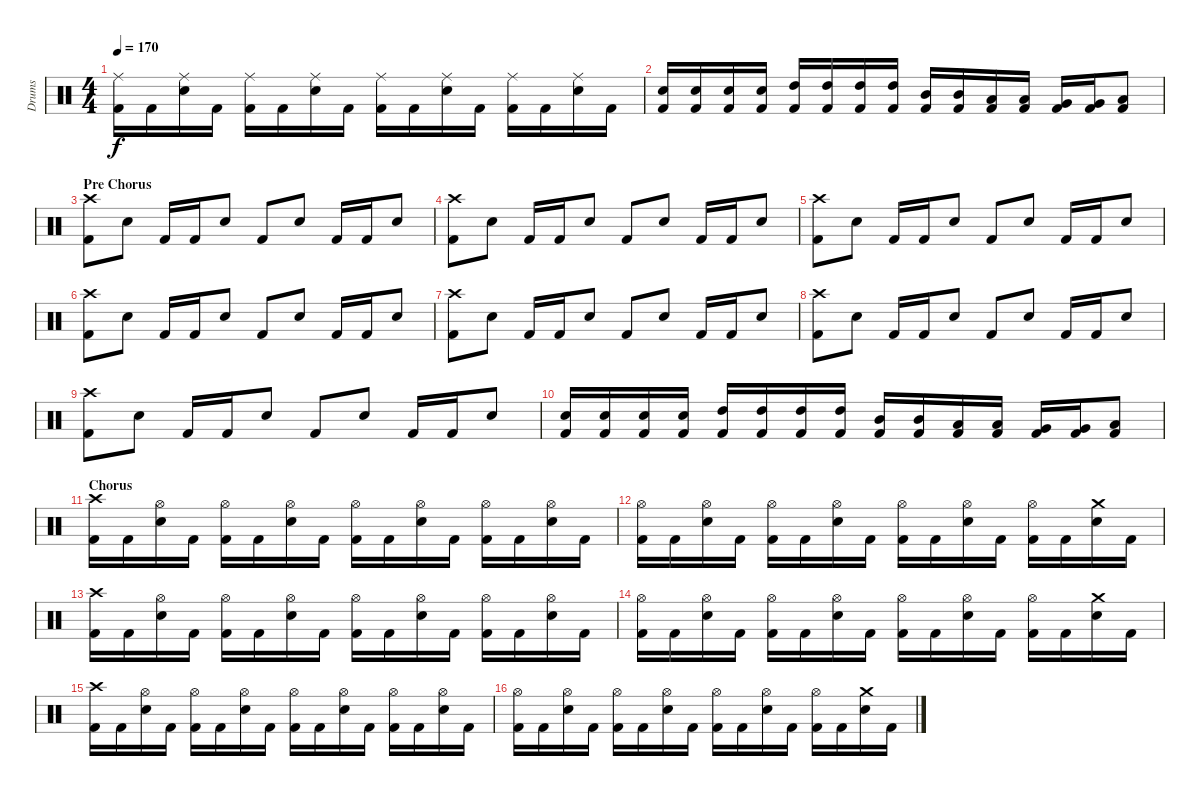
\track ("Drums" "Drums") {instrument percussion}
\staff {score}
\articulation defaults
\ts (4 4)
\tempo 170
\clef neutral
\ks c
("Ride (middle)" "Kick (hit) 2").16{dy f} "Kick (hit) 2".16 ("Ride (middle)" "Electric Snare (hit)").16 "Kick (hit) 2".16 ("Ride (middle)" "Kick (hit) 2").16 "Kick (hit) 2".16 ("Ride (middle)" "Electric Snare (hit)").16 "Kick (hit) 2".16 ("Ride (middle)" "Kick (hit) 2").16 "Kick (hit) 2".16 ("Ride (middle)" "Electric Snare (hit)").16 "Kick (hit) 2".16 ("Ride (middle)" "Kick (hit) 2").16 "Kick (hit) 2".16 ("Ride (middle)" "Electric Snare (hit)").16 "Kick (hit) 2".16 |
("Electric Snare (hit)" "Kick (hit) 2").16 ("Electric Snare (hit)" "Kick (hit) 2").16 ("Electric Snare (hit)" "Kick (hit) 2").16 ("Electric Snare (hit)" "Kick (hit) 2").16 ("High Tom (hit)" "Kick (hit) 2").16 ("High Tom (hit)" "Kick (hit) 2").16 ("High Tom (hit)" "Kick (hit) 2").16 ("High Tom (hit)" "Kick (hit) 2").16 ("Mid Tom (hit)" "Kick (hit) 2").16 ("Mid Tom (hit)" "Kick (hit) 2").16 ("Low Tom (hit)" "Kick (hit) 2").16 ("Low Tom (hit)" "Kick (hit) 2").16 ("Very Low Tom (hit)" "Kick (hit) 2").16 ("Very Low Tom (hit)" "Kick (hit) 2").16 ("Low Floor Tom (hit)" "Kick (hit) 2").8 |
\section ("" "Pre Chorus")
("Crash high (hit)" "Kick (hit) 2").8 "Snare (hit) 2".8 "Kick (hit) 2".16 "Kick (hit) 2".16 "Snare (hit) 2".8 "Kick (hit) 2".8 "Snare (hit) 2".8 "Kick (hit) 2".16 "Kick (hit) 2".16 "Snare (hit) 2".8 |
("Crash high (hit)" "Kick (hit) 2").8 "Snare (hit) 2".8 "Kick (hit) 2".16 "Kick (hit) 2".16 "Snare (hit) 2".8 "Kick (hit) 2".8 "Snare (hit) 2".8 "Kick (hit) 2".16 "Kick (hit) 2".16 "Snare (hit) 2".8 |
("Crash high (hit)" "Kick (hit) 2").8 "Snare (hit) 2".8 "Kick (hit) 2".16 "Kick (hit) 2".16 "Snare (hit) 2".8 "Kick (hit) 2".8 "Snare (hit) 2".8 "Kick (hit) 2".16 "Kick (hit) 2".16 "Snare (hit) 2".8 |
("Crash high (hit)" "Kick (hit) 2").8 "Snare (hit) 2".8 "Kick (hit) 2".16 "Kick (hit) 2".16 "Snare (hit) 2".8 "Kick (hit) 2".8 "Snare (hit) 2".8 "Kick (hit) 2".16 "Kick (hit) 2".16 "Snare (hit) 2".8 |
("Crash high (hit)" "Kick (hit) 2").8 "Snare (hit) 2".8 "Kick (hit) 2".16 "Kick (hit) 2".16 "Snare (hit) 2".8 "Kick (hit) 2".8 "Snare (hit) 2".8 "Kick (hit) 2".16 "Kick (hit) 2".16 "Snare (hit) 2".8 |
("Crash high (hit)" "Kick (hit) 2").8 "Snare (hit) 2".8 "Kick (hit) 2".16 "Kick (hit) 2".16 "Snare (hit) 2".8 "Kick (hit) 2".8 "Snare (hit) 2".8 "Kick (hit) 2".16 "Kick (hit) 2".16 "Snare (hit) 2".8 |
("Crash high (hit)" "Kick (hit) 2").8 "Snare (hit) 2".8 "Kick (hit) 2".16 "Kick (hit) 2".16 "Snare (hit) 2".8 "Kick (hit) 2".8 "Snare (hit) 2".8 "Kick (hit) 2".16 "Kick (hit) 2".16 "Snare (hit) 2".8 |
("Electric Snare (hit)" "Kick (hit) 2").16 ("Electric Snare (hit)" "Kick (hit) 2").16 ("Electric Snare (hit)" "Kick (hit) 2").16 ("Electric Snare (hit)" "Kick (hit) 2").16 ("High Tom (hit)" "Kick (hit) 2").16 ("High Tom (hit)" "Kick (hit) 2").16 ("High Tom (hit)" "Kick (hit) 2").16 ("High Tom (hit)" "Kick (hit) 2").16 ("Mid Tom (hit)" "Kick (hit) 2").16 ("Mid Tom (hit)" "Kick (hit) 2").16 ("Low Tom (hit)" "Kick (hit) 2").16 ("Low Tom (hit)" "Kick (hit) 2").16 ("Very Low Tom (hit)" "Kick (hit) 2").16 ("Very Low Tom (hit)" "Kick (hit) 2").16 ("Low Floor Tom (hit)" "Kick (hit) 2").8 |
\section ("" "Chorus")
("Crash high (hit)" "Kick (hit) 2").16 "Kick (hit) 2".16 ("Hi-Hat (open)" "Electric Snare (hit)").16 "Kick (hit) 2".16 ("Hi-Hat (open)" "Kick (hit) 2").16 "Kick (hit) 2".16 ("Hi-Hat (open)" "Electric Snare (hit)").16 "Kick (hit) 2".16 ("Hi-Hat (open)" "Kick (hit) 2").16 "Kick (hit) 2".16 ("Hi-Hat (open)" "Electric Snare (hit)").16 "Kick (hit) 2".16 ("Hi-Hat (open)" "Kick (hit) 2").16 "Kick (hit) 2".16 ("Hi-Hat (open)" "Electric Snare (hit)").16 "Kick (hit) 2".16 |
("Hi-Hat (open)" "Kick (hit) 2").16 "Kick (hit) 2".16 ("Hi-Hat (open)" "Electric Snare (hit)").16 "Kick (hit) 2".16 ("Hi-Hat (open)" "Kick (hit) 2").16 "Kick (hit) 2".16 ("Hi-Hat (open)" "Electric Snare (hit)").16 "Kick (hit) 2".16 ("Hi-Hat (open)" "Kick (hit) 2").16 "Kick (hit) 2".16 ("Hi-Hat (open)" "Electric Snare (hit)").16 "Kick (hit) 2".16 ("Hi-Hat (open)" "Kick (hit) 2").16 "Kick (hit) 2".16 ("Crash medium (hit)" "Electric Snare (hit)").16 "Kick (hit) 2".16 |
("Crash high (hit)" "Kick (hit) 2").16 "Kick (hit) 2".16 ("Hi-Hat (open)" "Electric Snare (hit)").16 "Kick (hit) 2".16 ("Hi-Hat (open)" "Kick (hit) 2").16 "Kick (hit) 2".16 ("Hi-Hat (open)" "Electric Snare (hit)").16 "Kick (hit) 2".16 ("Hi-Hat (open)" "Kick (hit) 2").16 "Kick (hit) 2".16 ("Hi-Hat (open)" "Electric Snare (hit)").16 "Kick (hit) 2".16 ("Hi-Hat (open)" "Kick (hit) 2").16 "Kick (hit) 2".16 ("Hi-Hat (open)" "Electric Snare (hit)").16 "Kick (hit) 2".16 |
("Hi-Hat (open)" "Kick (hit) 2").16 "Kick (hit) 2".16 ("Hi-Hat (open)" "Electric Snare (hit)").16 "Kick (hit) 2".16 ("Hi-Hat (open)" "Kick (hit) 2").16 "Kick (hit) 2".16 ("Hi-Hat (open)" "Electric Snare (hit)").16 "Kick (hit) 2".16 ("Hi-Hat (open)" "Kick (hit) 2").16 "Kick (hit) 2".16 ("Hi-Hat (open)" "Electric Snare (hit)").16 "Kick (hit) 2".16 ("Hi-Hat (open)" "Kick (hit) 2").16 "Kick (hit) 2".16 ("Crash medium (hit)" "Electric Snare (hit)").16 "Kick (hit) 2".16 |
("Crash high (hit)" "Kick (hit) 2").16 "Kick (hit) 2".16 ("Hi-Hat (open)" "Electric Snare (hit)").16 "Kick (hit) 2".16 ("Hi-Hat (open)" "Kick (hit) 2").16 "Kick (hit) 2".16 ("Hi-Hat (open)" "Electric Snare (hit)").16 "Kick (hit) 2".16 ("Hi-Hat (open)" "Kick (hit) 2").16 "Kick (hit) 2".16 ("Hi-Hat (open)" "Electric Snare (hit)").16 "Kick (hit) 2".16 ("Hi-Hat (open)" "Kick (hit) 2").16 "Kick (hit) 2".16 ("Hi-Hat (open)" "Electric Snare (hit)").16 "Kick (hit) 2".16 |
("Hi-Hat (open)" "Kick (hit) 2").16 "Kick (hit) 2".16 ("Hi-Hat (open)" "Electric Snare (hit)").16 "Kick (hit) 2".16 ("Hi-Hat (open)" "Kick (hit) 2").16 "Kick (hit) 2".16 ("Hi-Hat (open)" "Electric Snare (hit)").16 "Kick (hit) 2".16 ("Hi-Hat (open)" "Kick (hit) 2").16 "Kick (hit) 2".16 ("Hi-Hat (open)" "Electric Snare (hit)").16 "Kick (hit) 2".16 ("Hi-Hat (open)" "Kick (hit) 2").16 "Kick (hit) 2".16 ("Crash medium (hit)" "Electric Snare (hit)").16 "Kick (hit) 2".16
